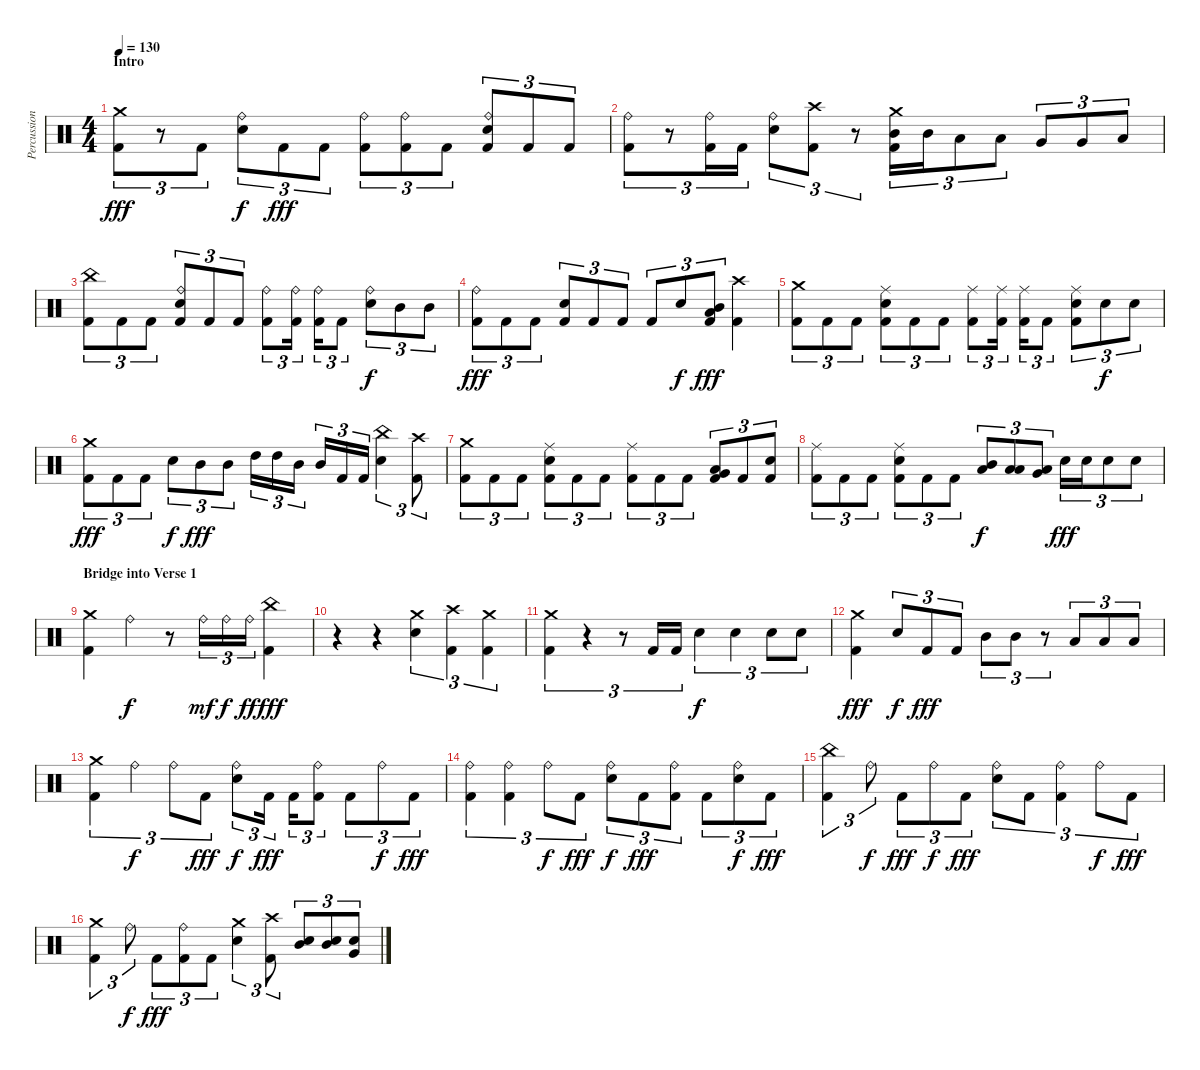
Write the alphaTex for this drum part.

\track ("Percussion" "Percussion") {instrument percussion}
\staff {score}
\articulation defaults
\ts (4 4)
\section ("" "Intro")
\tempo 130
\clef neutral
\ks c
("Crash medium (hit)" "Kick (hit) 2").8{tu (3 2) dy fff} r.8{tu (3 2)} "Kick (hit) 2".8{tu (3 2)} ("Ride (bell)" "Electric Snare (hit)").8{tu (3 2) dy f} "Kick (hit) 2".8{tu (3 2) dy fff} "Kick (hit) 2".8{tu (3 2)} ("Ride (bell)" "Kick (hit) 2").8{tu (3 2)} ("Ride (bell)" "Kick (hit) 2").8{tu (3 2)} "Kick (hit) 2".8{tu (3 2)} ("Ride (bell)" "Electric Snare (hit)" "Kick (hit) 2").8{tu (3 2)} "Kick (hit) 2".8{tu (3 2)} "Kick (hit) 2".8{tu (3 2)} |
("Ride (bell)" "Kick (hit) 2").8{tu (3 2)} r.8{tu (3 2)} ("Ride (bell)" "Kick (hit) 2").16{tu (3 2)} "Kick (hit) 2".16{tu (3 2)} ("Ride (bell)" "Electric Snare (hit)").8{tu (3 2)} ("Crash high (hit)" "Kick (hit) 2").8{tu (3 2)} r.8{tu (3 2)} ("Crash medium (hit)" "Mid Tom (hit)" "Kick (hit) 2").16{tu (3 2)} "Mid Tom (hit)".16{tu (3 2)} "Low Tom (hit)".8{tu (3 2)} "Low Tom (hit)".8{tu (3 2)} "Very Low Tom (hit)".8{tu (3 2)} "Very Low Tom (hit)".8{tu (3 2)} "Low Floor Tom (hit)".8{tu (3 2)} |
("China (hit)" "Kick (hit) 2").8{tu (3 2)} "Kick (hit) 2".8{tu (3 2)} "Kick (hit) 2".8{tu (3 2)} ("Ride (bell)" "Electric Snare (hit)" "Kick (hit) 2").8{tu (3 2)} "Kick (hit) 2".8{tu (3 2)} "Kick (hit) 2".8{tu (3 2)} ("Ride (bell)" "Kick (hit) 2").8{tu (3 2)} ("Ride (bell)" "Kick (hit) 2").16{tu (3 2)} ("Ride (bell)" "Kick (hit) 2").16{tu (3 2)} "Kick (hit) 2".8{tu (3 2)} ("Ride (bell)" "Electric Snare (hit)").8{tu (3 2) dy f} "Mid Tom (hit)".8{tu (3 2)} "Mid Tom (hit)".8{tu (3 2)} |
("Ride (bell)" "Kick (hit) 2").8{tu (3 2) dy fff} "Kick (hit) 2".8{tu (3 2)} "Kick (hit) 2".8{tu (3 2)} ("Electric Snare (hit)" "Kick (hit) 2").8{tu (3 2)} "Kick (hit) 2".8{tu (3 2)} "Kick (hit) 2".8{tu (3 2)} "Kick (hit) 2".8{tu (3 2)} "Electric Snare (hit)".8{tu (3 2) dy f} ("Mid Tom (hit)" "Low Tom (hit)" "Kick (hit) 2").8{tu (3 2) dy fff} ("Crash high (hit)" "Kick (hit) 2").4 |
("Crash medium (hit)" "Kick (hit) 2").8{tu (3 2)} "Kick (hit) 2".8{tu (3 2)} "Kick (hit) 2".8{tu (3 2)} ("Ride (middle)" "Electric Snare (hit)" "Kick (hit) 2").8{tu (3 2)} "Kick (hit) 2".8{tu (3 2)} "Kick (hit) 2".8{tu (3 2)} ("Ride (middle)" "Kick (hit) 2").8{tu (3 2)} ("Ride (middle)" "Kick (hit) 2").16{tu (3 2)} ("Ride (middle)" "Kick (hit) 2").16{tu (3 2)} "Kick (hit) 2".8{tu (3 2)} ("Ride (middle)" "Electric Snare (hit)" "Kick (hit) 2").8{tu (3 2)} "Electric Snare (hit)".8{tu (3 2) dy f} "Electric Snare (hit)".8{tu (3 2)} |
("Crash medium (hit)" "Kick (hit) 2").8{tu (3 2) dy fff} "Kick (hit) 2".8{tu (3 2)} "Kick (hit) 2".8{tu (3 2)} "Electric Snare (hit)".8{tu (3 2) dy f} "Mid Tom (hit)".8{tu (3 2) dy fff} "Mid Tom (hit)".8{tu (3 2)} "High Tom (hit)".16{tu (3 2)} "High Tom (hit)".16{tu (3 2)} "Mid Tom (hit)".16{tu (3 2)} "Mid Tom (hit)".16{tu (3 2)} "Kick (hit) 2".16{tu (3 2)} "Kick (hit) 2".16{tu (3 2)} ("China (hit)" "Electric Snare (hit)").4{tu (3 2)} ("Crash high (hit)" "Kick (hit) 2").8{tu (3 2)} |
("Crash medium (hit)" "Kick (hit) 2").8{tu (3 2)} "Kick (hit) 2".8{tu (3 2)} "Kick (hit) 2".8{tu (3 2)} ("Ride (middle)" "Electric Snare (hit)" "Kick (hit) 2").8{tu (3 2)} "Kick (hit) 2".8{tu (3 2)} "Kick (hit) 2".8{tu (3 2)} ("Ride (middle)" "Kick (hit) 2").8{tu (3 2)} "Kick (hit) 2".8{tu (3 2)} "Kick (hit) 2".8{tu (3 2)} ("Low Floor Tom (hit)" "Very Low Tom (hit)" "Kick (hit) 2").8{tu (3 2)} "Kick (hit) 2".8{tu (3 2)} ("Electric Snare (hit)" "Kick (hit) 2").8{tu (3 2)} |
("Ride (middle)" "Kick (hit) 2").8{tu (3 2)} "Kick (hit) 2".8{tu (3 2)} "Kick (hit) 2".8{tu (3 2)} ("Ride (middle)" "Electric Snare (hit)" "Kick (hit) 2").8{tu (3 2)} "Kick (hit) 2".8{tu (3 2)} "Kick (hit) 2".8{tu (3 2)} ("Mid Tom (hit)" "Low Floor Tom (hit)").8{tu (3 2) dy f} ("Low Tom (hit)" "Low Floor Tom (hit)").8{tu (3 2)} ("Very Low Tom (hit)" "Low Floor Tom (hit)").8{tu (3 2)} "Electric Snare (hit)".16{tu (3 2) dy fff} "Electric Snare (hit)".16{tu (3 2)} "Electric Snare (hit)".8{tu (3 2)} "Electric Snare (hit)".8{tu (3 2)} |
\section ("" "Bridge into Verse 1")
("Crash medium (hit)" "Kick (hit) 2").4 "Ride (bell)".4{dy f} r.8 "Ride (bell)".16{tu (3 2) dy mf} "Ride (bell)".16{tu (3 2) dy f} "Ride (bell)".16{tu (3 2) dy ff} ("China (hit)" "Kick (hit) 2").4{dy fff} |
r.4 r.4 ("Crash medium (hit)" "Electric Snare (hit)").4{tu (3 2)} ("Crash high (hit)" "Kick (hit) 2").4{tu (3 2)} ("Crash medium (hit)" "Kick (hit) 2").4{tu (3 2)} |
("Crash medium (hit)" "Kick (hit) 2").4{tu (3 2)} r.4{tu (3 2)} r.8{tu (3 2)} "Kick (hit) 2".16{tu (3 2)} "Kick (hit) 2".16{tu (3 2)} "Electric Snare (hit)".4{tu (3 2) dy f} "Electric Snare (hit)".4{tu (3 2)} "Electric Snare (hit)".8{tu (3 2)} "Electric Snare (hit)".8{tu (3 2)} |
("Crash medium (hit)" "Kick (hit) 2").4{dy fff} "Electric Snare (hit)".8{tu (3 2) dy f} "Kick (hit) 2".8{tu (3 2) dy fff} "Kick (hit) 2".8{tu (3 2)} "Mid Tom (hit)".8{tu (3 2)} "Mid Tom (hit)".8{tu (3 2)} r.8{tu (3 2)} "Low Tom (hit)".8{tu (3 2)} "Low Tom (hit)".8{tu (3 2)} "Low Tom (hit)".8{tu (3 2)} |
("Crash medium (hit)" "Kick (hit) 2").4{tu (3 2)} "Ride (bell)".4{tu (3 2) dy f} "Ride (bell)".8{tu (3 2)} "Kick (hit) 2".8{tu (3 2) dy fff} ("Ride (bell)" "Electric Snare (hit)").8{tu (3 2) dy f} "Kick (hit) 2".16{tu (3 2) dy fff} "Kick (hit) 2".16{tu (3 2)} ("Ride (bell)" "Kick (hit) 2").8{tu (3 2)} "Kick (hit) 2".8{tu (3 2)} "Ride (bell)".8{tu (3 2) dy f} "Kick (hit) 2".8{tu (3 2) dy fff} |
("Ride (bell)" "Kick (hit) 2").4{tu (3 2)} ("Ride (bell)" "Kick (hit) 2").4{tu (3 2)} "Ride (bell)".8{tu (3 2) dy f} "Kick (hit) 2".8{tu (3 2) dy fff} ("Ride (bell)" "Electric Snare (hit)").8{tu (3 2) dy f} "Kick (hit) 2".8{tu (3 2) dy fff} ("Ride (bell)" "Kick (hit) 2").8{tu (3 2)} "Kick (hit) 2".8{tu (3 2)} ("Ride (bell)" "Electric Snare (hit)").8{tu (3 2) dy f} "Kick (hit) 2".8{tu (3 2) dy fff} |
("China (hit)" "Kick (hit) 2").4{tu (3 2)} "Ride (bell)".8{tu (3 2) dy f} "Kick (hit) 2".8{tu (3 2) dy fff} "Ride (bell)".8{tu (3 2) dy f} "Kick (hit) 2".8{tu (3 2) dy fff} ("Ride (bell)" "Electric Snare (hit)").8{tu (3 2)} "Kick (hit) 2".8{tu (3 2)} ("Ride (bell)" "Kick (hit) 2").4{tu (3 2)} "Ride (bell)".8{tu (3 2) dy f} "Kick (hit) 2".8{tu (3 2) dy fff} |
("Crash medium (hit)" "Kick (hit) 2").4{tu (3 2)} "Ride (bell)".8{tu (3 2) dy f} "Kick (hit) 2".8{tu (3 2) dy fff} ("Ride (bell)" "Kick (hit) 2").8{tu (3 2)} "Kick (hit) 2".8{tu (3 2)} ("Crash medium (hit)" "Electric Snare (hit)").4{tu (3 2)} ("Crash high (hit)" "Kick (hit) 2").8{tu (3 2)} ("Mid Tom (hit)" "Electric Snare (hit)").8{tu (3 2)} ("Mid Tom (hit)" "Electric Snare (hit)").8{tu (3 2)} ("Very Low Tom (hit)" "Electric Snare (hit)").8{tu (3 2)}
